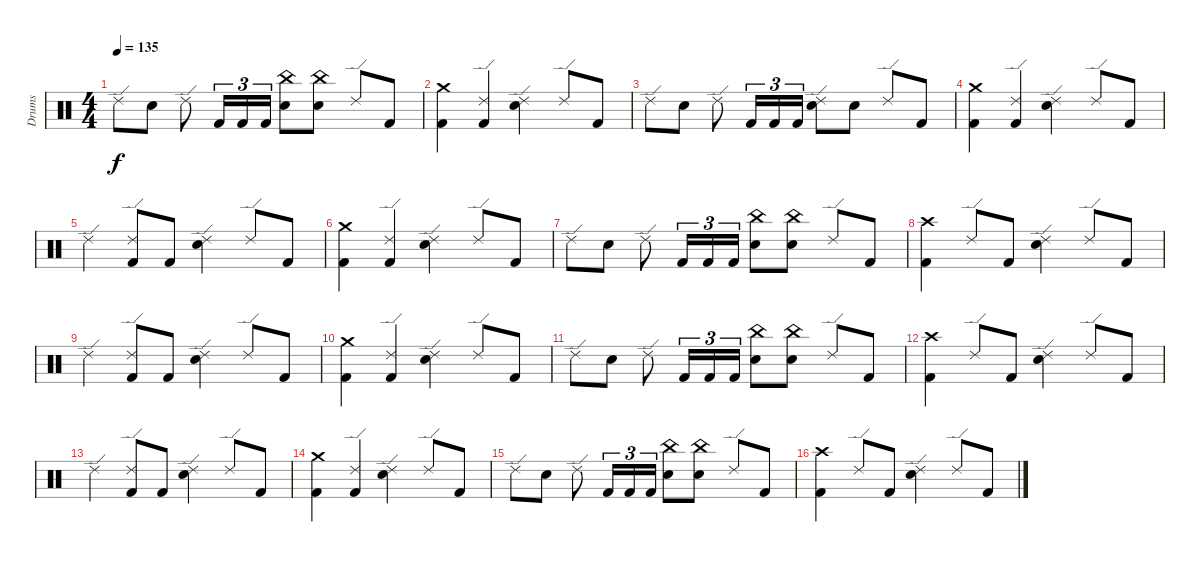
\track ("Drums" "Drums") {instrument percussion}
\staff {score}
\articulation defaults
\ts (4 4)
\tempo 135
\clef neutral
\ks c "Ride (edge) 2".8{dy f} "Snare (hit) 2".8 "Ride (edge) 2".8 "Kick (hit) 2".16{tu (3 2)} "Kick (hit) 2".16{tu (3 2)} "Kick (hit) 2".16{tu (3 2)}
("Snare (hit) 2" "China (hit)").8 ("Snare (hit) 2" "China (hit)").8 "Ride (edge) 2".8 "Kick (hit) 2".8 |
("Kick (hit) 2" "Crash medium (hit)").4 ("Kick (hit) 2" "Ride (edge) 2").4 ("Snare (hit) 2" "Ride (edge) 2").4 "Ride (edge) 2".8 "Kick (hit) 2".8 |
"Ride (edge) 2".8 "Snare (hit) 2".8 "Ride (edge) 2".8 "Kick (hit) 2".16{tu (3 2)} "Kick (hit) 2".16{tu (3 2)} "Kick (hit) 2".16{tu (3 2)} ("Snare (hit) 2" "Ride (edge) 2").8 "Snare (hit) 2".8 "Ride (edge) 2".8 "Kick (hit) 2".8 |
("Kick (hit) 2" "Crash medium (hit)").4 ("Kick (hit) 2" "Ride (edge) 2").4 ("Snare (hit) 2" "Ride (edge) 2").4 "Ride (edge) 2".8 "Kick (hit) 2".8 |
"Ride (edge) 2".4 ("Kick (hit) 2" "Ride (edge) 2").8 "Kick (hit) 2".8 ("Snare (hit) 2" "Ride (edge) 2").4 "Ride (edge) 2".8 "Kick (hit) 2".8 |
("Kick (hit) 2" "Crash medium (hit)").4 ("Kick (hit) 2" "Ride (edge) 2").4 ("Snare (hit) 2" "Ride (edge) 2").4 "Ride (edge) 2".8 "Kick (hit) 2".8 |
"Ride (edge) 2".8 "Snare (hit) 2".8 "Ride (edge) 2".8 "Kick (hit) 2".16{tu (3 2)} "Kick (hit) 2".16{tu (3 2)} "Kick (hit) 2".16{tu (3 2)} ("Snare (hit) 2" "China (hit)").8 ("Snare (hit) 2" "China (hit)").8 "Ride (edge) 2".8 "Kick (hit) 2".8 |
("Kick (hit) 2" "Crash high (hit)").4 "Ride (edge) 2".8 "Kick (hit) 2".8 ("Snare (hit) 2" "Ride (edge) 2").4 "Ride (edge) 2".8 "Kick (hit) 2".8 |
"Ride (edge) 2".4 ("Kick (hit) 2" "Ride (edge) 2").8 "Kick (hit) 2".8 ("Snare (hit) 2" "Ride (edge) 2").4 "Ride (edge) 2".8 "Kick (hit) 2".8 |
("Kick (hit) 2" "Crash medium (hit)").4 ("Kick (hit) 2" "Ride (edge) 2").4 ("Snare (hit) 2" "Ride (edge) 2").4 "Ride (edge) 2".8 "Kick (hit) 2".8 |
"Ride (edge) 2".8 "Snare (hit) 2".8 "Ride (edge) 2".8 "Kick (hit) 2".16{tu (3 2)} "Kick (hit) 2".16{tu (3 2)} "Kick (hit) 2".16{tu (3 2)} ("Snare (hit) 2" "China (hit)").8 ("Snare (hit) 2" "China (hit)").8 "Ride (edge) 2".8 "Kick (hit) 2".8 |
("Kick (hit) 2" "Crash high (hit)").4 "Ride (edge) 2".8 "Kick (hit) 2".8 ("Snare (hit) 2" "Ride (edge) 2").4 "Ride (edge) 2".8 "Kick (hit) 2".8 |
"Ride (edge) 2".4 ("Kick (hit) 2" "Ride (edge) 2").8 "Kick (hit) 2".8 ("Snare (hit) 2" "Ride (edge) 2").4 "Ride (edge) 2".8 "Kick (hit) 2".8 |
("Kick (hit) 2" "Crash medium (hit)").4 ("Kick (hit) 2" "Ride (edge) 2").4 ("Snare (hit) 2" "Ride (edge) 2").4 "Ride (edge) 2".8 "Kick (hit) 2".8 |
"Ride (edge) 2".8 "Snare (hit) 2".8 "Ride (edge) 2".8 "Kick (hit) 2".16{tu (3 2)} "Kick (hit) 2".16{tu (3 2)} "Kick (hit) 2".16{tu (3 2)} ("Snare (hit) 2" "China (hit)").8 ("Snare (hit) 2" "China (hit)").8 "Ride (edge) 2".8 "Kick (hit) 2".8 |
("Kick (hit) 2" "Crash high (hit)").4 "Ride (edge) 2".8 "Kick (hit) 2".8 ("Snare (hit) 2" "Ride (edge) 2").4 "Ride (edge) 2".8 "Kick (hit) 2".8
